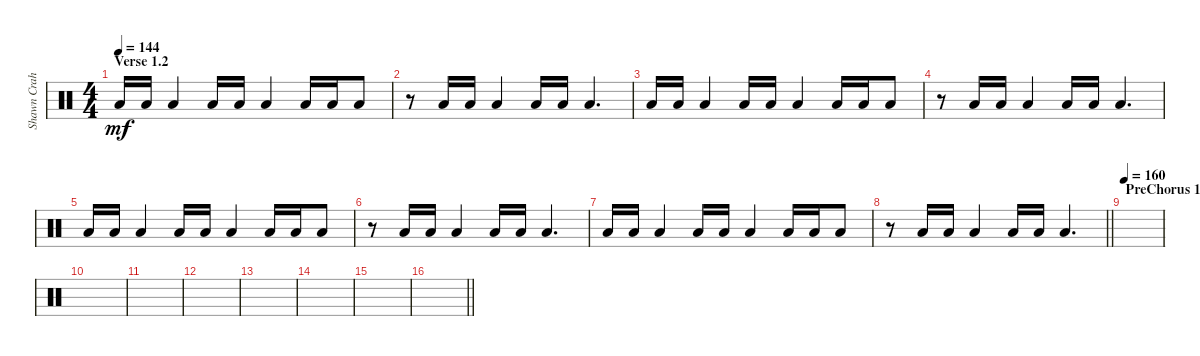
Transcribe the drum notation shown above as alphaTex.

\track ("Shawn Crahan" "Shawn Crah") {instrument percussion}
\staff {score}
\articulation defaults
\ts (4 4)
\section ("" "Verse 1.2")
\tempo 144
\clef neutral
\ks c "Low Floor Tom (hit)".16{dy mf} "Low Floor Tom (hit)".16 "Low Floor Tom (hit)".4 "Low Floor Tom (hit)".16 "Low Floor Tom (hit)".16 "Low Floor Tom (hit)".4 "Low Floor Tom (hit)".16 "Low Floor Tom (hit)".16 "Low Floor Tom (hit)".8
|
r.8 "Low Floor Tom (hit)".16 "Low Floor Tom (hit)".16 "Low Floor Tom (hit)".4 "Low Floor Tom (hit)".16 "Low Floor Tom (hit)".16 "Low Floor Tom (hit)".4{d} |
"Low Floor Tom (hit)".16 "Low Floor Tom (hit)".16 "Low Floor Tom (hit)".4 "Low Floor Tom (hit)".16 "Low Floor Tom (hit)".16 "Low Floor Tom (hit)".4 "Low Floor Tom (hit)".16 "Low Floor Tom (hit)".16 "Low Floor Tom (hit)".8 |
r.8 "Low Floor Tom (hit)".16 "Low Floor Tom (hit)".16 "Low Floor Tom (hit)".4 "Low Floor Tom (hit)".16 "Low Floor Tom (hit)".16 "Low Floor Tom (hit)".4{d} |
"Low Floor Tom (hit)".16 "Low Floor Tom (hit)".16 "Low Floor Tom (hit)".4 "Low Floor Tom (hit)".16 "Low Floor Tom (hit)".16 "Low Floor Tom (hit)".4 "Low Floor Tom (hit)".16 "Low Floor Tom (hit)".16 "Low Floor Tom (hit)".8 |
r.8 "Low Floor Tom (hit)".16 "Low Floor Tom (hit)".16 "Low Floor Tom (hit)".4 "Low Floor Tom (hit)".16 "Low Floor Tom (hit)".16 "Low Floor Tom (hit)".4{d} |
"Low Floor Tom (hit)".16 "Low Floor Tom (hit)".16 "Low Floor Tom (hit)".4 "Low Floor Tom (hit)".16 "Low Floor Tom (hit)".16 "Low Floor Tom (hit)".4 "Low Floor Tom (hit)".16 "Low Floor Tom (hit)".16 "Low Floor Tom (hit)".8 |
\barLineRight lightlight
r.8 "Low Floor Tom (hit)".16 "Low Floor Tom (hit)".16 "Low Floor Tom (hit)".4 "Low Floor Tom (hit)".16 "Low Floor Tom (hit)".16 "Low Floor Tom (hit)".4{d} |
\section ("" "PreChorus 1.1")
\tempo 160
|
|
|
|
|
|
|
\barLineRight lightlight
